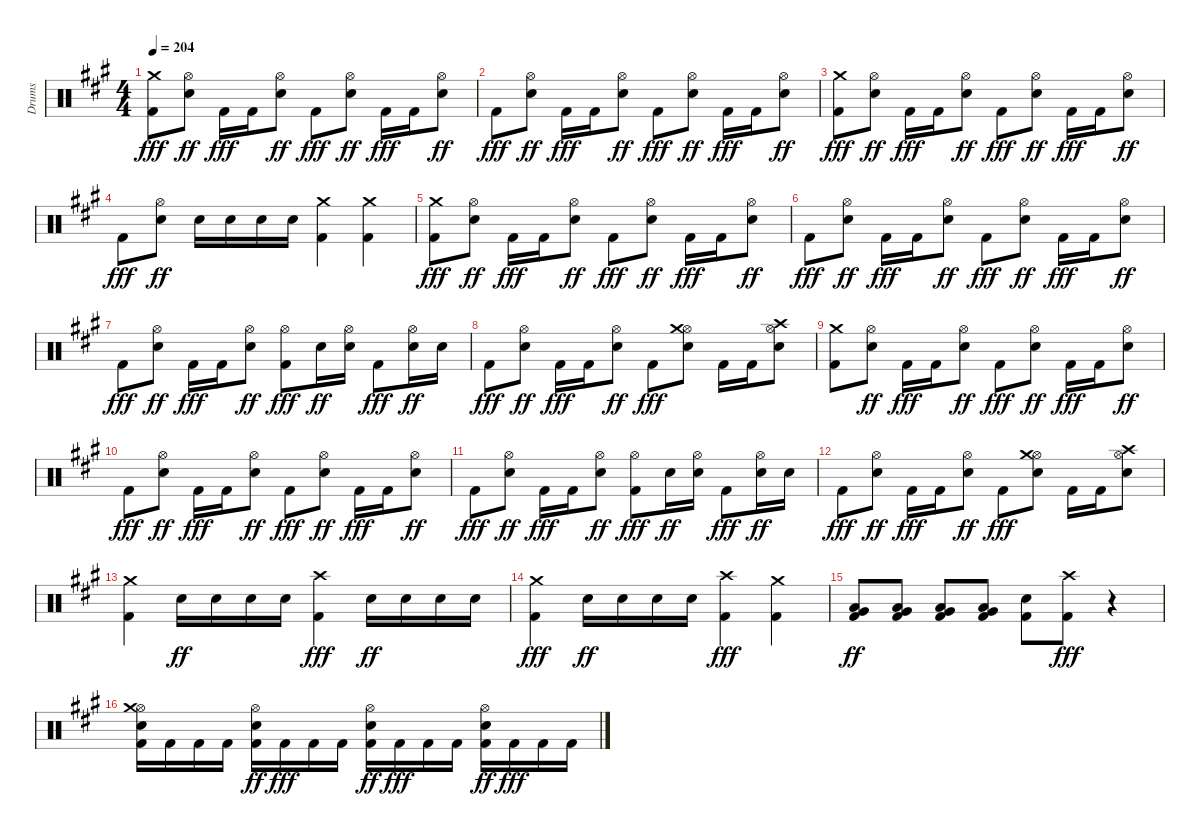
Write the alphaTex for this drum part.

\track ("Drums" "Drums") {instrument percussion}
\staff {score}
\articulation defaults
\ts (4 4)
\tempo 204
\clef neutral
\ks a
("Kick (hit) 2" "Crash medium (hit)").8{dy fff} ("Electric Snare (hit)" "Hi-Hat (open)").8{dy ff} "Kick (hit) 2".16{dy fff} "Kick (hit) 2".16 ("Electric Snare (hit)" "Hi-Hat (open)").8{dy ff} "Kick (hit) 2".8{dy fff} ("Electric Snare (hit)" "Hi-Hat (open)").8{dy ff} "Kick (hit) 2".16{dy fff} "Kick (hit) 2".16 ("Electric Snare (hit)" "Hi-Hat (open)").8{dy ff} |
"Kick (hit) 2".8{dy fff} ("Electric Snare (hit)" "Hi-Hat (open)").8{dy ff} "Kick (hit) 2".16{dy fff} "Kick (hit) 2".16 ("Electric Snare (hit)" "Hi-Hat (open)").8{dy ff} "Kick (hit) 2".8{dy fff} ("Electric Snare (hit)" "Hi-Hat (open)").8{dy ff} "Kick (hit) 2".16{dy fff} "Kick (hit) 2".16 ("Electric Snare (hit)" "Hi-Hat (open)").8{dy ff} |
("Kick (hit) 2" "Crash medium (hit)").8{dy fff} ("Electric Snare (hit)" "Hi-Hat (open)").8{dy ff} "Kick (hit) 2".16{dy fff} "Kick (hit) 2".16 ("Electric Snare (hit)" "Hi-Hat (open)").8{dy ff} "Kick (hit) 2".8{dy fff} ("Electric Snare (hit)" "Hi-Hat (open)").8{dy ff} "Kick (hit) 2".16{dy fff} "Kick (hit) 2".16 ("Electric Snare (hit)" "Hi-Hat (open)").8{dy ff} |
"Kick (hit) 2".8{dy fff} ("Electric Snare (hit)" "Hi-Hat (open)").8{dy ff} "Electric Snare (hit)".16 "Electric Snare (hit)".16 "Electric Snare (hit)".16 "Electric Snare (hit)".16 ("Kick (hit) 2" "Crash medium (hit)").4 ("Kick (hit) 2" "Crash medium (hit)").4 |
("Kick (hit) 2" "Crash medium (hit)").8{dy fff} ("Electric Snare (hit)" "Hi-Hat (open)").8{dy ff} "Kick (hit) 2".16{dy fff} "Kick (hit) 2".16 ("Electric Snare (hit)" "Hi-Hat (open)").8{dy ff} "Kick (hit) 2".8{dy fff} ("Electric Snare (hit)" "Hi-Hat (open)").8{dy ff} "Kick (hit) 2".16{dy fff} "Kick (hit) 2".16 ("Electric Snare (hit)" "Hi-Hat (open)").8{dy ff} |
"Kick (hit) 2".8{dy fff} ("Electric Snare (hit)" "Hi-Hat (open)").8{dy ff} "Kick (hit) 2".16{dy fff} "Kick (hit) 2".16 ("Electric Snare (hit)" "Hi-Hat (open)").8{dy ff} "Kick (hit) 2".8{dy fff} ("Electric Snare (hit)" "Hi-Hat (open)").8{dy ff} "Kick (hit) 2".16{dy fff} "Kick (hit) 2".16 ("Electric Snare (hit)" "Hi-Hat (open)").8{dy ff} |
"Kick (hit) 2".8{dy fff} ("Electric Snare (hit)" "Hi-Hat (open)").8{dy ff} "Kick (hit) 2".16{dy fff} "Kick (hit) 2".16 ("Electric Snare (hit)" "Hi-Hat (open)").8{dy ff} ("Kick (hit) 2" "Hi-Hat (open)").8{dy fff} "Electric Snare (hit)".16{dy ff} ("Electric Snare (hit)" "Hi-Hat (open)").16 "Kick (hit) 2".8{dy fff} ("Electric Snare (hit)" "Hi-Hat (open)").16{dy ff} "Electric Snare (hit)".16 |
"Kick (hit) 2".8{dy fff} ("Electric Snare (hit)" "Hi-Hat (open)").8{dy ff} "Kick (hit) 2".16{dy fff} "Kick (hit) 2".16 ("Electric Snare (hit)" "Hi-Hat (open)").8{dy ff} "Kick (hit) 2".8{dy fff} ("Electric Snare (hit)" "Hi-Hat (open)" "Crash medium (hit)").8 "Kick (hit) 2".16 "Kick (hit) 2".16 ("Electric Snare (hit)" "Hi-Hat (open)" "Crash high (hit)").8 |
("Kick (hit) 2" "Crash medium (hit)").8 ("Electric Snare (hit)" "Hi-Hat (open)").8{dy ff} "Kick (hit) 2".16{dy fff} "Kick (hit) 2".16 ("Electric Snare (hit)" "Hi-Hat (open)").8{dy ff} "Kick (hit) 2".8{dy fff} ("Electric Snare (hit)" "Hi-Hat (open)").8{dy ff} "Kick (hit) 2".16{dy fff} "Kick (hit) 2".16 ("Electric Snare (hit)" "Hi-Hat (open)").8{dy ff} |
"Kick (hit) 2".8{dy fff} ("Electric Snare (hit)" "Hi-Hat (open)").8{dy ff} "Kick (hit) 2".16{dy fff} "Kick (hit) 2".16 ("Electric Snare (hit)" "Hi-Hat (open)").8{dy ff} "Kick (hit) 2".8{dy fff} ("Electric Snare (hit)" "Hi-Hat (open)").8{dy ff} "Kick (hit) 2".16{dy fff} "Kick (hit) 2".16 ("Electric Snare (hit)" "Hi-Hat (open)").8{dy ff} |
"Kick (hit) 2".8{dy fff} ("Electric Snare (hit)" "Hi-Hat (open)").8{dy ff} "Kick (hit) 2".16{dy fff} "Kick (hit) 2".16 ("Electric Snare (hit)" "Hi-Hat (open)").8{dy ff} ("Kick (hit) 2" "Hi-Hat (open)").8{dy fff} "Electric Snare (hit)".16{dy ff} ("Electric Snare (hit)" "Hi-Hat (open)").16 "Kick (hit) 2".8{dy fff} ("Electric Snare (hit)" "Hi-Hat (open)").16{dy ff} "Electric Snare (hit)".16 |
"Kick (hit) 2".8{dy fff} ("Electric Snare (hit)" "Hi-Hat (open)").8{dy ff} "Kick (hit) 2".16{dy fff} "Kick (hit) 2".16 ("Electric Snare (hit)" "Hi-Hat (open)").8{dy ff} "Kick (hit) 2".8{dy fff} ("Electric Snare (hit)" "Hi-Hat (open)" "Crash medium (hit)").8 "Kick (hit) 2".16 "Kick (hit) 2".16 ("Electric Snare (hit)" "Hi-Hat (open)" "Crash high (hit)").8 |
("Kick (hit) 2" "Crash medium (hit)").4 "Electric Snare (hit)".16{dy ff} "Electric Snare (hit)".16 "Electric Snare (hit)".16 "Electric Snare (hit)".16 ("Kick (hit) 2" "Crash high (hit)").4{dy fff} "Electric Snare (hit)".16{dy ff} "Electric Snare (hit)".16 "Electric Snare (hit)".16 "Electric Snare (hit)".16 |
("Kick (hit) 2" "Crash medium (hit)").4{dy fff} "Electric Snare (hit)".16{dy ff} "Electric Snare (hit)".16 "Electric Snare (hit)".16 "Electric Snare (hit)".16 ("Kick (hit) 2" "Crash high (hit)").4{dy fff} ("Kick (hit) 2" "Crash medium (hit)").4 |
("Kick (hit) 2" "Low Tom (hit)" "Very Low Tom (hit)").8{dy ff} ("Kick (hit) 2" "Low Tom (hit)" "Very Low Tom (hit)").8 ("Kick (hit) 2" "Low Tom (hit)" "Very Low Tom (hit)").8 ("Kick (hit) 2" "Low Tom (hit)" "Very Low Tom (hit)").8 ("Kick (hit) 2" "Electric Snare (hit)").8 ("Kick (hit) 2" "Crash high (hit)").8{dy fff} r.4 |
("Kick (hit) 2" "Electric Snare (hit)" "Hi-Hat (open)" "Crash medium (hit)").16 "Kick (hit) 2".16 "Kick (hit) 2".16 "Kick (hit) 2".16 ("Kick (hit) 2" "Electric Snare (hit)" "Hi-Hat (open)").16{dy ff} "Kick (hit) 2".16{dy fff} "Kick (hit) 2".16 "Kick (hit) 2".16 ("Kick (hit) 2" "Electric Snare (hit)" "Hi-Hat (open)").16{dy ff} "Kick (hit) 2".16{dy fff} "Kick (hit) 2".16 "Kick (hit) 2".16 ("Kick (hit) 2" "Electric Snare (hit)" "Hi-Hat (open)").16{dy ff} "Kick (hit) 2".16{dy fff} "Kick (hit) 2".16 "Kick (hit) 2".16
